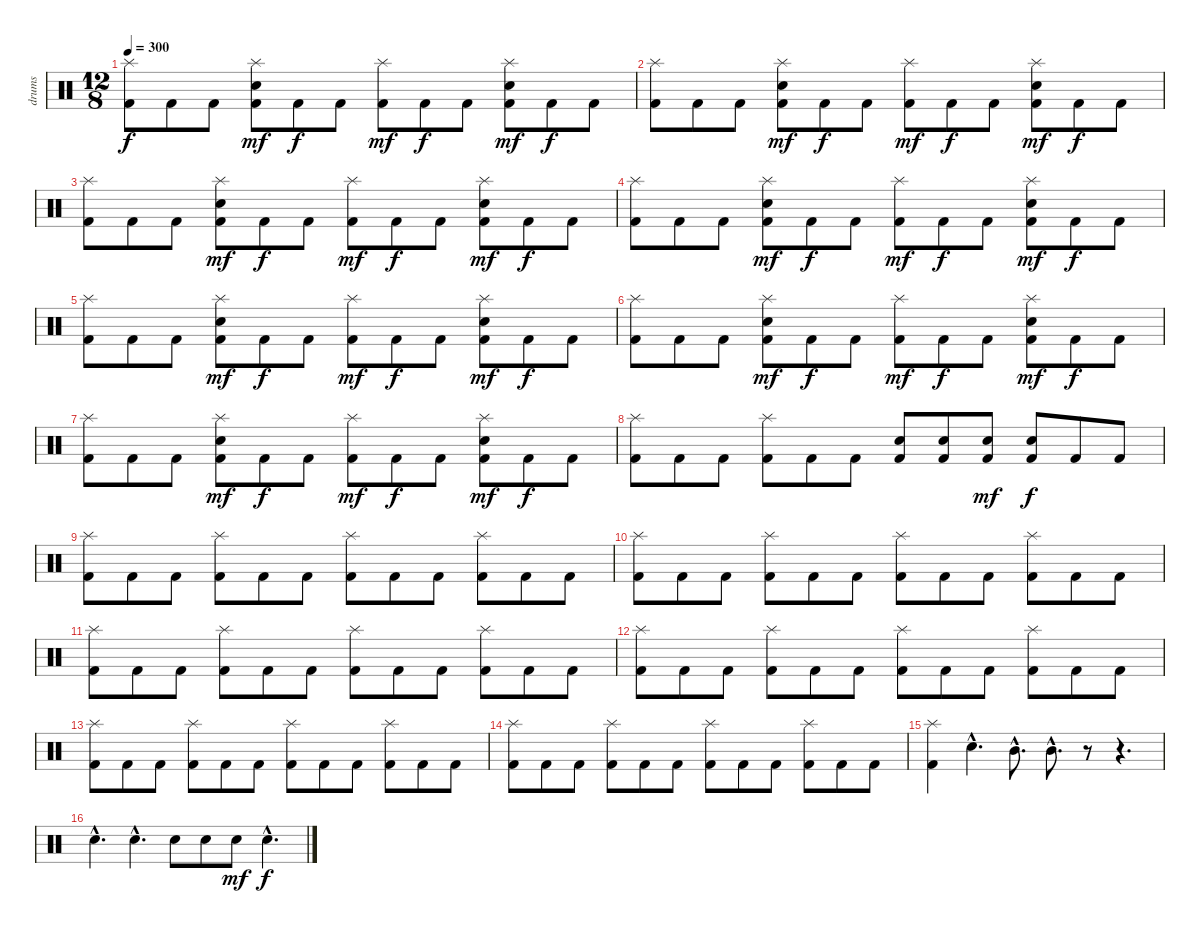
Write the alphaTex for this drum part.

\track ("drums" "drums") {instrument percussion}
\staff {score}
\articulation defaults
\ts (12 8)
\tempo 300
\clef neutral
\ks c
("Splash (hit)" "Kick (hit) 2").8{dy f} "Kick (hit) 2".8 "Kick (hit) 2".8 ("Splash (hit)" "Snare (hit) 2" "Kick (hit) 2").8{dy mf} "Kick (hit) 2".8{dy f} "Kick (hit) 2".8 ("Splash (hit)" "Kick (hit) 2").8{dy mf} "Kick (hit) 2".8{dy f} "Kick (hit) 2".8 ("Splash (hit)" "Snare (hit) 2" "Kick (hit) 2").8{dy mf} "Kick (hit) 2".8{dy f} "Kick (hit) 2".8 |
("Splash (hit)" "Kick (hit) 2").8 "Kick (hit) 2".8 "Kick (hit) 2".8 ("Splash (hit)" "Snare (hit) 2" "Kick (hit) 2").8{dy mf} "Kick (hit) 2".8{dy f} "Kick (hit) 2".8 ("Splash (hit)" "Kick (hit) 2").8{dy mf} "Kick (hit) 2".8{dy f} "Kick (hit) 2".8 ("Splash (hit)" "Snare (hit) 2" "Kick (hit) 2").8{dy mf} "Kick (hit) 2".8{dy f} "Kick (hit) 2".8 |
("Splash (hit)" "Kick (hit) 2").8 "Kick (hit) 2".8 "Kick (hit) 2".8 ("Splash (hit)" "Snare (hit) 2" "Kick (hit) 2").8{dy mf} "Kick (hit) 2".8{dy f} "Kick (hit) 2".8 ("Splash (hit)" "Kick (hit) 2").8{dy mf} "Kick (hit) 2".8{dy f} "Kick (hit) 2".8 ("Splash (hit)" "Snare (hit) 2" "Kick (hit) 2").8{dy mf} "Kick (hit) 2".8{dy f} "Kick (hit) 2".8 |
("Splash (hit)" "Kick (hit) 2").8 "Kick (hit) 2".8 "Kick (hit) 2".8 ("Splash (hit)" "Snare (hit) 2" "Kick (hit) 2").8{dy mf} "Kick (hit) 2".8{dy f} "Kick (hit) 2".8 ("Splash (hit)" "Kick (hit) 2").8{dy mf} "Kick (hit) 2".8{dy f} "Kick (hit) 2".8 ("Splash (hit)" "Snare (hit) 2" "Kick (hit) 2").8{dy mf} "Kick (hit) 2".8{dy f} "Kick (hit) 2".8 |
("Splash (hit)" "Kick (hit) 2").8 "Kick (hit) 2".8 "Kick (hit) 2".8 ("Splash (hit)" "Snare (hit) 2" "Kick (hit) 2").8{dy mf} "Kick (hit) 2".8{dy f} "Kick (hit) 2".8 ("Splash (hit)" "Kick (hit) 2").8{dy mf} "Kick (hit) 2".8{dy f} "Kick (hit) 2".8 ("Splash (hit)" "Snare (hit) 2" "Kick (hit) 2").8{dy mf} "Kick (hit) 2".8{dy f} "Kick (hit) 2".8 |
("Splash (hit)" "Kick (hit) 2").8 "Kick (hit) 2".8 "Kick (hit) 2".8 ("Splash (hit)" "Snare (hit) 2" "Kick (hit) 2").8{dy mf} "Kick (hit) 2".8{dy f} "Kick (hit) 2".8 ("Splash (hit)" "Kick (hit) 2").8{dy mf} "Kick (hit) 2".8{dy f} "Kick (hit) 2".8 ("Splash (hit)" "Snare (hit) 2" "Kick (hit) 2").8{dy mf} "Kick (hit) 2".8{dy f} "Kick (hit) 2".8 |
("Splash (hit)" "Kick (hit) 2").8 "Kick (hit) 2".8 "Kick (hit) 2".8 ("Splash (hit)" "Snare (hit) 2" "Kick (hit) 2").8{dy mf} "Kick (hit) 2".8{dy f} "Kick (hit) 2".8 ("Splash (hit)" "Kick (hit) 2").8{dy mf} "Kick (hit) 2".8{dy f} "Kick (hit) 2".8 ("Splash (hit)" "Snare (hit) 2" "Kick (hit) 2").8{dy mf} "Kick (hit) 2".8{dy f} "Kick (hit) 2".8 |
("Splash (hit)" "Kick (hit) 2").8 "Kick (hit) 2".8 "Kick (hit) 2".8 ("Splash (hit)" "Kick (hit) 2").8 "Kick (hit) 2".8 "Kick (hit) 2".8 ("Snare (hit) 2" "Kick (hit) 2").8 ("Snare (hit) 2" "Kick (hit) 2").8 ("Snare (hit) 2" "Kick (hit) 2").8{dy mf} ("Snare (hit) 2" "Kick (hit) 2").8{dy f} "Kick (hit) 2".8 "Kick (hit) 2".8 |
("Splash (hit)" "Kick (hit) 2").8 "Kick (hit) 2".8 "Kick (hit) 2".8 ("Splash (hit)" "Kick (hit) 2").8 "Kick (hit) 2".8 "Kick (hit) 2".8 ("Splash (hit)" "Kick (hit) 2").8 "Kick (hit) 2".8 "Kick (hit) 2".8 ("Splash (hit)" "Kick (hit) 2").8 "Kick (hit) 2".8 "Kick (hit) 2".8 |
("Splash (hit)" "Kick (hit) 2").8 "Kick (hit) 2".8 "Kick (hit) 2".8 ("Splash (hit)" "Kick (hit) 2").8 "Kick (hit) 2".8 "Kick (hit) 2".8 ("Splash (hit)" "Kick (hit) 2").8 "Kick (hit) 2".8 "Kick (hit) 2".8 ("Splash (hit)" "Kick (hit) 2").8 "Kick (hit) 2".8 "Kick (hit) 2".8 |
("Splash (hit)" "Kick (hit) 2").8 "Kick (hit) 2".8 "Kick (hit) 2".8 ("Splash (hit)" "Kick (hit) 2").8 "Kick (hit) 2".8 "Kick (hit) 2".8 ("Splash (hit)" "Kick (hit) 2").8 "Kick (hit) 2".8 "Kick (hit) 2".8 ("Splash (hit)" "Kick (hit) 2").8 "Kick (hit) 2".8 "Kick (hit) 2".8 |
("Splash (hit)" "Kick (hit) 2").8 "Kick (hit) 2".8 "Kick (hit) 2".8 ("Splash (hit)" "Kick (hit) 2").8 "Kick (hit) 2".8 "Kick (hit) 2".8 ("Splash (hit)" "Kick (hit) 2").8 "Kick (hit) 2".8 "Kick (hit) 2".8 ("Splash (hit)" "Kick (hit) 2").8 "Kick (hit) 2".8 "Kick (hit) 2".8 |
("Splash (hit)" "Kick (hit) 2").8 "Kick (hit) 2".8 "Kick (hit) 2".8 ("Splash (hit)" "Kick (hit) 2").8 "Kick (hit) 2".8 "Kick (hit) 2".8 ("Splash (hit)" "Kick (hit) 2").8 "Kick (hit) 2".8 "Kick (hit) 2".8 ("Splash (hit)" "Kick (hit) 2").8 "Kick (hit) 2".8 "Kick (hit) 2".8 |
("Splash (hit)" "Kick (hit) 2").8 "Kick (hit) 2".8 "Kick (hit) 2".8 ("Splash (hit)" "Kick (hit) 2").8 "Kick (hit) 2".8 "Kick (hit) 2".8 ("Splash (hit)" "Kick (hit) 2").8 "Kick (hit) 2".8 "Kick (hit) 2".8 ("Splash (hit)" "Kick (hit) 2").8 "Kick (hit) 2".8 "Kick (hit) 2".8 |
("Splash (hit)" "Kick (hit) 2").4 "Snare (hit) 2"{hac}.4{d} "Mid Tom (hit)"{hac}.8{d} "Mid Tom (hit)"{hac}.8{d} r.8 r.4{d} |
"Snare (hit) 2"{hac}.4{d} "Snare (hit) 2"{hac}.4{d} "Snare (hit) 2".8 "Snare (hit) 2".8 "Snare (hit) 2".8{dy mf} "Snare (hit) 2"{hac}.4{d dy f}
